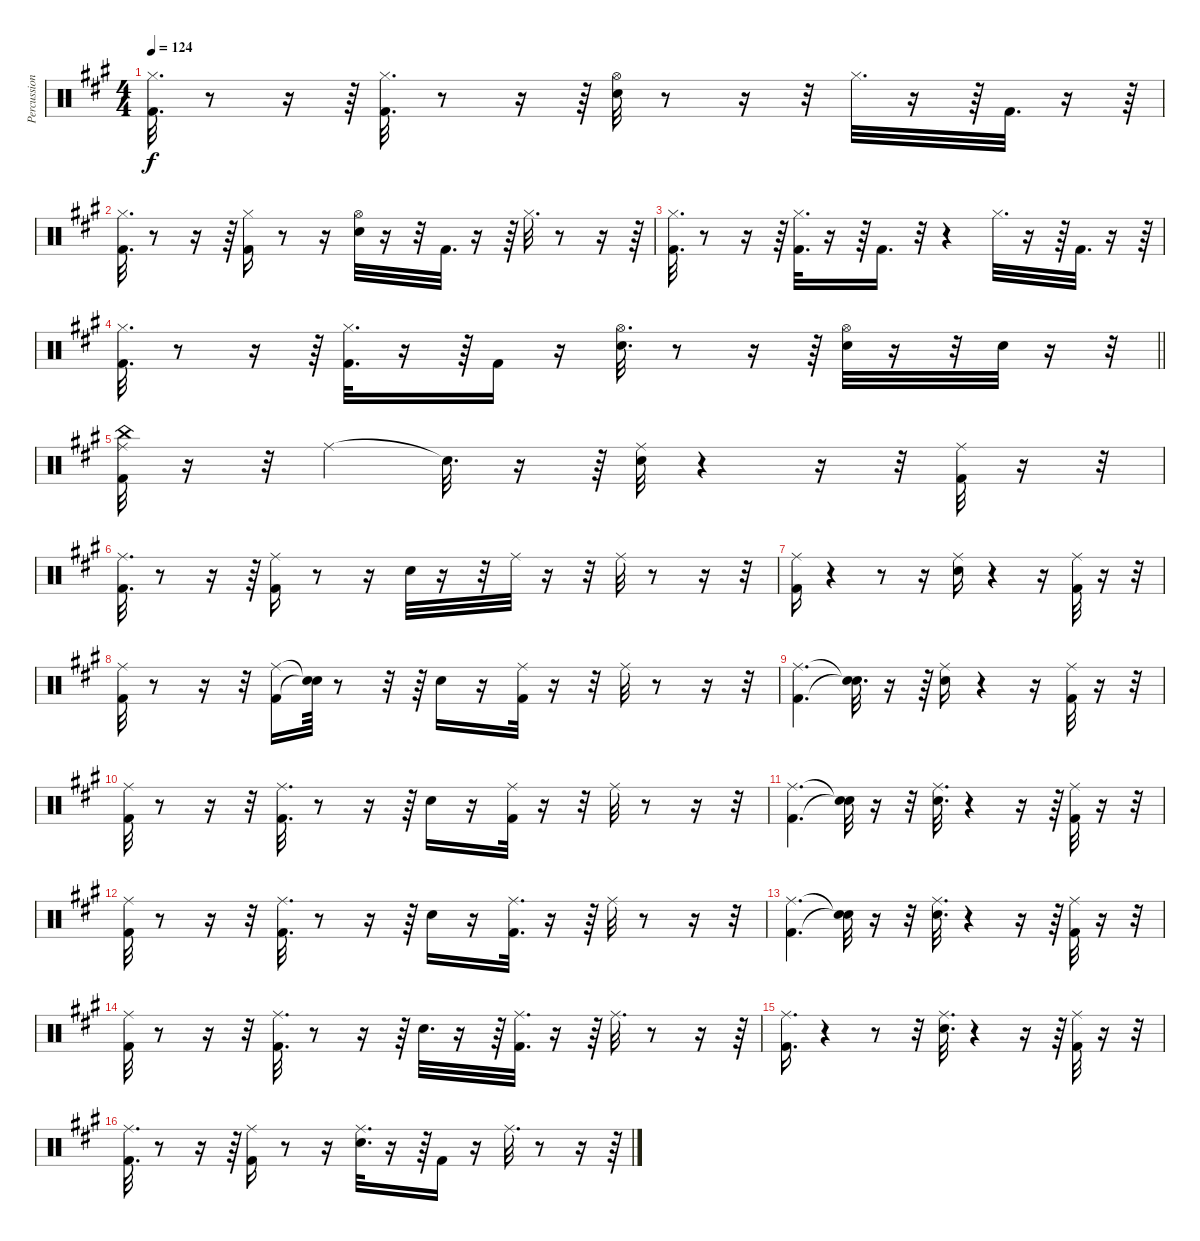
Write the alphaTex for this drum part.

\track ("Percussion" "Percussion") {instrument percussion}
\staff {score}
\articulation defaults
\ts (4 4)
\tempo 124
\clef neutral
\ks f#minor
("Kick (hit) 2" "Hi-Hat (closed)").32{d dy f} r.8 r.16 r.64 ("Hi-Hat (closed)" "Kick (hit) 2").32{d} r.8 r.16 r.64 ("Hi-Hat (open)" "Electric Snare (hit)").32 r.8 r.16 r.32 "Hi-Hat (closed)".32{d} r.16 r.64 "Kick (hit) 2".32{d} r.16 r.64 |
("Hi-Hat (closed)" "Kick (hit) 2").32{d} r.8 r.16 r.64 ("Kick (hit) 2" "Hi-Hat (closed)").16 r.8 r.16 ("Electric Snare (hit)" "Hi-Hat (open)").32 r.16 r.32 "Kick (hit) 2".32{d} r.16 r.64 "Hi-Hat (closed)".32{d} r.8 r.16 r.64 |
("Hi-Hat (closed)" "Kick (hit) 2").32{d} r.8 r.16 r.64 ("Hi-Hat (closed)" "Kick (hit) 2").32{d} r.16 r.64 "Kick (hit) 2".16{d} r.32 r.4 "Hi-Hat (closed)".32{d} r.16 r.64 "Kick (hit) 2".32{d} r.16 r.64 |
\barLineRight lightlight
("Hi-Hat (closed)" "Kick (hit) 2").32{d} r.8 r.16 r.64 ("Hi-Hat (closed)" "Kick (hit) 2").32{d} r.16 r.64 "Kick (hit) 2".16 r.16 ("Hi-Hat (open)" "Electric Snare (hit)").32{d} r.8 r.16 r.64 ("Hi-Hat (open)" "Electric Snare (hit)").32 r.16 r.32 "Electric Snare (hit)".32 r.16 r.32 |
("Ride (middle)" "China (hit)" "Kick (hit) 2").32 r.16 r.32 "Ride (middle)".4 "Snare (hit)"{t}.32{d} r.16 r.64 ("Electric Snare (hit)" "Ride (middle)").32 r.4 r.16 r.32 ("Ride (middle)" "Kick (hit) 2").32 r.16 r.32 |
("Ride (middle)" "Kick (hit) 2").32{d} r.8 r.16 r.64 ("Ride (middle)" "Kick (hit) 2").16 r.8 r.16 "Electric Snare (hit)".32 r.16 r.32 "Ride (middle)".32 r.16 r.32 "Ride (middle)".32 r.8 r.16 r.32 |
("Ride (middle)" "Kick (hit) 2").16 r.4 r.8 r.16 ("Electric Snare (hit)" "Ride (middle)").16 r.4 r.16 ("Ride (middle)" "Kick (hit) 2").32 r.16 r.32 |
("Kick (hit) 2" "Ride (middle)").32 r.8 r.16 r.32 ("Kick (hit) 2" "Ride (middle)").16 ("Snare (hit)"{t} "Snare (hit)"{t}).64 r.8 r.32 r.64 "Electric Snare (hit)".16 r.16 ("Ride (middle)" "Kick (hit) 2").32 r.16 r.32 "Ride (middle)".32 r.8 r.16 r.32 |
("Ride (middle)" "Kick (hit) 2").4{d} ("Snare (hit)"{t} "Snare (hit)"{t}).32{d} r.16 r.64 ("Ride (middle)" "Electric Snare (hit)").16 r.4 r.16 ("Ride (middle)" "Kick (hit) 2").32 r.16 r.32 |
("Kick (hit) 2" "Ride (middle)").32 r.8 r.16 r.32 ("Ride (middle)" "Kick (hit) 2").32{d} r.8 r.16 r.64 "Electric Snare (hit)".16 r.16 ("Ride (middle)" "Kick (hit) 2").32 r.16 r.32 "Ride (middle)".32 r.8 r.16 r.32 |
("Kick (hit) 2" "Ride (middle)").4{d} ("Snare (hit)"{t} "Snare (hit)"{t}).32 r.16 r.32 ("Electric Snare (hit)" "Ride (middle)").32{d} r.4 r.16 r.64 ("Ride (middle)" "Kick (hit) 2").32 r.16 r.32 |
("Kick (hit) 2" "Ride (middle)").32 r.8 r.16 r.32 ("Ride (middle)" "Kick (hit) 2").32{d} r.8 r.16 r.64 "Electric Snare (hit)".16 r.16 ("Ride (middle)" "Kick (hit) 2").32{d} r.16 r.64 "Ride (middle)".32 r.8 r.16 r.32 |
("Ride (middle)" "Kick (hit) 2").4{d} ("Snare (hit)"{t} "Snare (hit)"{t}).32 r.16 r.32 ("Electric Snare (hit)" "Ride (middle)").32{d} r.4 r.16 r.64 ("Ride (middle)" "Kick (hit) 2").32 r.16 r.32 |
("Kick (hit) 2" "Ride (middle)").32 r.8 r.16 r.32 ("Kick (hit) 2" "Ride (middle)").32{d} r.8 r.16 r.64 "Electric Snare (hit)".32{d} r.16 r.64 ("Ride (middle)" "Kick (hit) 2").32{d} r.16 r.64 "Ride (middle)".32{d} r.8 r.16 r.64 |
("Ride (middle)" "Kick (hit) 2").16{d} r.4 r.8 r.32 ("Electric Snare (hit)" "Ride (middle)").32{d} r.4 r.16 r.64 ("Ride (middle)" "Kick (hit) 2").32 r.16 r.32 |
("Kick (hit) 2" "Ride (middle)").32{d} r.8 r.16 r.64 ("Kick (hit) 2" "Ride (middle)").16 r.8 r.16 ("Electric Snare (hit)" "Ride (middle)").32{d} r.16 r.64 "Kick (hit) 2".16 r.16 "Ride (middle)".32{d} r.8 r.16 r.64
